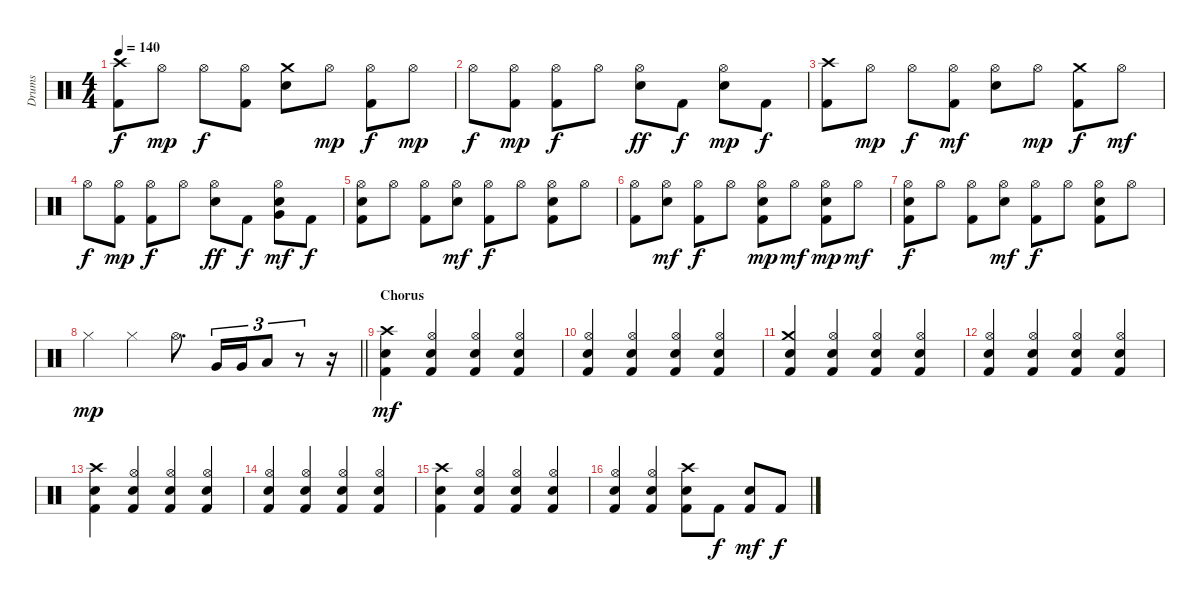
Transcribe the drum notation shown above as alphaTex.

\track ("Drums" "Drums") {instrument percussion}
\staff {score}
\articulation defaults
\ts (4 4)
\tempo 140
\clef neutral
\ks c
("Crash high (hit)" "Kick (hit) 2").8{dy f} "Hi-Hat (open)".8{dy mp} "Hi-Hat (open)".8{dy f} ("Hi-Hat (open)" "Kick (hit) 2").8 ("Crash medium (hit)" "Electric Snare (hit)").8 "Hi-Hat (open)".8{dy mp} ("Hi-Hat (open)" "Kick (hit) 2").8{dy f} "Hi-Hat (open)".8{dy mp} |
"Hi-Hat (open)".8{dy f} ("Hi-Hat (open)" "Kick (hit) 2").8{dy mp} ("Hi-Hat (open)" "Kick (hit) 2").8{dy f} "Hi-Hat (open)".8 ("Hi-Hat (open)" "Electric Snare (hit)").8{dy ff} "Kick (hit) 2".8{dy f} ("Hi-Hat (open)" "Electric Snare (hit)").8{dy mp} "Kick (hit) 2".8{dy f} |
("Crash high (hit)" "Kick (hit) 2").8 "Hi-Hat (open)".8{dy mp} "Hi-Hat (open)".8{dy f} ("Hi-Hat (open)" "Kick (hit) 2").8{dy mf} ("Hi-Hat (open)" "Electric Snare (hit)").8 "Hi-Hat (open)".8{dy mp} ("Crash medium (hit)" "Kick (hit) 2").8{dy f} "Hi-Hat (open)".8{dy mf} |
"Hi-Hat (open)".8{dy f} ("Hi-Hat (open)" "Kick (hit) 2").8{dy mp} ("Hi-Hat (open)" "Kick (hit) 2").8{dy f} "Hi-Hat (open)".8 ("Hi-Hat (open)" "Electric Snare (hit)").8{dy ff} "Kick (hit) 2".8{dy f} ("Hi-Hat (open)" "Electric Snare (hit)" "Very Low Tom (hit)").8{dy mf} "Kick (hit) 2".8{dy f} |
("Hi-Hat (open)" "Electric Snare (hit)" "Kick (hit) 2").8 "Hi-Hat (open)".8 ("Hi-Hat (open)" "Kick (hit) 2").8 ("Hi-Hat (open)" "Electric Snare (hit)").8{dy mf} ("Hi-Hat (open)" "Kick (hit) 2").8{dy f} "Hi-Hat (open)".8 ("Hi-Hat (open)" "Electric Snare (hit)" "Kick (hit) 2").8 "Hi-Hat (open)".8 |
("Hi-Hat (open)" "Kick (hit) 2").8 ("Hi-Hat (open)" "Electric Snare (hit)").8{dy mf} ("Hi-Hat (open)" "Kick (hit) 2").8{dy f} "Hi-Hat (open)".8 ("Hi-Hat (open)" "Electric Snare (hit)" "Kick (hit) 2").8{dy mp} "Hi-Hat (open)".8{dy mf} ("Hi-Hat (open)" "Electric Snare (hit)" "Kick (hit) 2").8{dy mp} "Hi-Hat (open)".8{dy mf} |
("Hi-Hat (open)" "Electric Snare (hit)" "Kick (hit) 2").8{dy f} "Hi-Hat (open)".8 ("Hi-Hat (open)" "Kick (hit) 2").8 ("Hi-Hat (open)" "Electric Snare (hit)").8{dy mf} ("Hi-Hat (open)" "Kick (hit) 2").8{dy f} "Hi-Hat (open)".8 ("Hi-Hat (open)" "Electric Snare (hit)" "Kick (hit) 2").8 "Hi-Hat (open)".8 |
\barLineRight lightlight "Hi-Hat (closed)".4{dy mp} "Hi-Hat (closed)".4 "Hi-Hat (open)".8{d} "Very Low Tom (hit)".16{tu (3 2)} "Very Low Tom (hit)".16{tu (3 2)} "Low Floor Tom (hit)".8{tu (3 2)}
r.8{tu (3 2)} r.16 |
\section ("" "Chorus")
("Crash high (hit)" "Electric Snare (hit)" "Kick (hit) 2").4{dy mf} ("Hi-Hat (open)" "Electric Snare (hit)" "Kick (hit) 2").4 ("Hi-Hat (open)" "Electric Snare (hit)" "Kick (hit) 2").4 ("Hi-Hat (open)" "Electric Snare (hit)" "Kick (hit) 2").4 |
("Hi-Hat (open)" "Electric Snare (hit)" "Kick (hit) 2").4 ("Hi-Hat (open)" "Electric Snare (hit)" "Kick (hit) 2").4 ("Hi-Hat (open)" "Electric Snare (hit)" "Kick (hit) 2").4 ("Hi-Hat (open)" "Electric Snare (hit)" "Kick (hit) 2").4 |
("Crash medium (hit)" "Electric Snare (hit)" "Kick (hit) 2").4 ("Hi-Hat (open)" "Electric Snare (hit)" "Kick (hit) 2").4 ("Hi-Hat (open)" "Electric Snare (hit)" "Kick (hit) 2").4 ("Hi-Hat (open)" "Electric Snare (hit)" "Kick (hit) 2").4 |
("Hi-Hat (open)" "Electric Snare (hit)" "Kick (hit) 2").4 ("Hi-Hat (open)" "Electric Snare (hit)" "Kick (hit) 2").4 ("Hi-Hat (open)" "Electric Snare (hit)" "Kick (hit) 2").4 ("Hi-Hat (open)" "Electric Snare (hit)" "Kick (hit) 2").4 |
("Crash high (hit)" "Electric Snare (hit)" "Kick (hit) 2").4 ("Hi-Hat (open)" "Electric Snare (hit)" "Kick (hit) 2").4 ("Hi-Hat (open)" "Electric Snare (hit)" "Kick (hit) 2").4 ("Hi-Hat (open)" "Electric Snare (hit)" "Kick (hit) 2").4 |
("Hi-Hat (open)" "Electric Snare (hit)" "Kick (hit) 2").4 ("Hi-Hat (open)" "Electric Snare (hit)" "Kick (hit) 2").4 ("Hi-Hat (open)" "Electric Snare (hit)" "Kick (hit) 2").4 ("Hi-Hat (open)" "Electric Snare (hit)" "Kick (hit) 2").4 |
("Crash high (hit)" "Electric Snare (hit)" "Kick (hit) 2").4 ("Hi-Hat (open)" "Electric Snare (hit)" "Kick (hit) 2").4 ("Hi-Hat (open)" "Electric Snare (hit)" "Kick (hit) 2").4 ("Hi-Hat (open)" "Electric Snare (hit)" "Kick (hit) 2").4 |
("Hi-Hat (open)" "Electric Snare (hit)" "Kick (hit) 2").4 ("Hi-Hat (open)" "Electric Snare (hit)" "Kick (hit) 2").4 ("Crash high (hit)" "Electric Snare (hit)" "Kick (hit) 2").8 "Kick (hit) 2".8{dy f} ("Electric Snare (hit)" "Kick (hit) 2").8{dy mf} "Kick (hit) 2".8{dy f}
